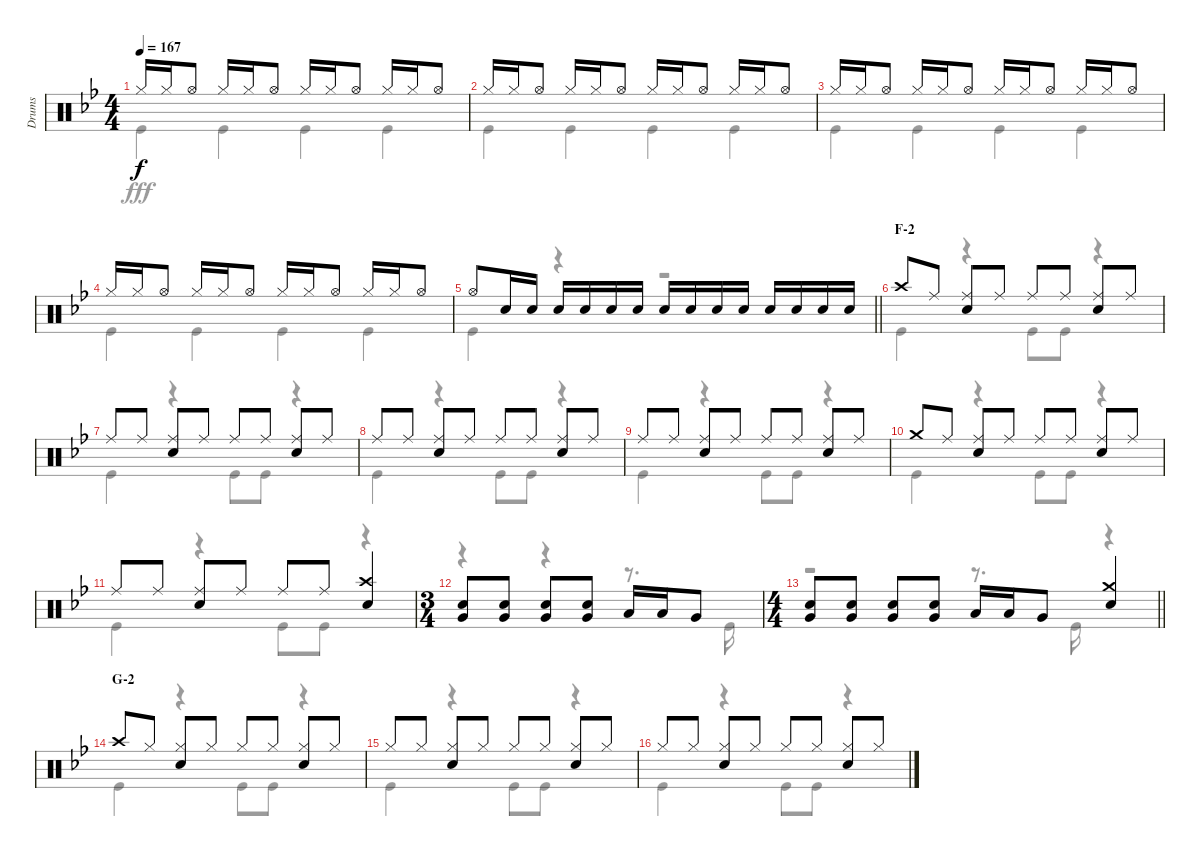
\track ("Drums" "Drums") {instrument percussion}
\staff {score}
\articulation defaults
\voice
\ts (4 4)
\tempo 167
\clef neutral
\ks bb "Hi-Hat (closed)".16{dy f} "Hi-Hat (closed)".16 "Hi-Hat (open)".8 "Hi-Hat (closed)".16 "Hi-Hat (closed)".16 "Hi-Hat (open)".8 "Hi-Hat (closed)".16 "Hi-Hat (closed)".16 "Hi-Hat (open)".8 "Hi-Hat (closed)".16 "Hi-Hat (closed)".16 "Hi-Hat (open)".8
|
"Hi-Hat (closed)".16 "Hi-Hat (closed)".16 "Hi-Hat (open)".8 "Hi-Hat (closed)".16 "Hi-Hat (closed)".16 "Hi-Hat (open)".8 "Hi-Hat (closed)".16 "Hi-Hat (closed)".16 "Hi-Hat (open)".8 "Hi-Hat (closed)".16 "Hi-Hat (closed)".16 "Hi-Hat (open)".8 |
"Hi-Hat (closed)".16 "Hi-Hat (closed)".16 "Hi-Hat (open)".8 "Hi-Hat (closed)".16 "Hi-Hat (closed)".16 "Hi-Hat (open)".8 "Hi-Hat (closed)".16 "Hi-Hat (closed)".16 "Hi-Hat (open)".8 "Hi-Hat (closed)".16 "Hi-Hat (closed)".16 "Hi-Hat (open)".8 |
"Hi-Hat (closed)".16 "Hi-Hat (closed)".16 "Hi-Hat (open)".8 "Hi-Hat (closed)".16 "Hi-Hat (closed)".16 "Hi-Hat (open)".8 "Hi-Hat (closed)".16 "Hi-Hat (closed)".16 "Hi-Hat (open)".8 "Hi-Hat (closed)".16 "Hi-Hat (closed)".16 "Hi-Hat (open)".8 |
\barLineRight lightlight "Hi-Hat (open)".8 "Snare (hit) 2".16 "Snare (hit) 2".16 "Snare (hit) 2".16 "Snare (hit) 2".16 "Snare (hit) 2".16 "Snare (hit) 2".16 "Snare (hit) 2".16 "Snare (hit) 2".16 "Snare (hit) 2".16 "Snare (hit) 2".16 "Snare (hit) 2".16 "Snare (hit) 2".16 "Snare (hit) 2".16 "Snare (hit) 2".16
|
\section ("" "F-2")
"Crash high (hit)".8 "Ride (middle)".8 ("Ride (middle)" "Snare (hit) 2").8 "Ride (middle)".8 "Ride (middle)".8 "Ride (middle)".8 ("Ride (middle)" "Snare (hit) 2").8 "Ride (middle)".8 |
"Ride (middle)".8 "Ride (middle)".8 ("Ride (middle)" "Snare (hit) 2").8 "Ride (middle)".8 "Ride (middle)".8 "Ride (middle)".8 ("Ride (middle)" "Snare (hit) 2").8 "Ride (middle)".8 |
"Ride (middle)".8 "Ride (middle)".8 ("Ride (middle)" "Snare (hit) 2").8 "Ride (middle)".8 "Ride (middle)".8 "Ride (middle)".8 ("Ride (middle)" "Snare (hit) 2").8 "Ride (middle)".8 |
"Ride (middle)".8 "Ride (middle)".8 ("Ride (middle)" "Snare (hit) 2").8 "Ride (middle)".8 "Ride (middle)".8 "Ride (middle)".8 ("Ride (middle)" "Snare (hit) 2").8 "Ride (middle)".8 |
"Crash medium (hit)".8 "Ride (middle)".8 ("Ride (middle)" "Snare (hit) 2").8 "Ride (middle)".8 "Ride (middle)".8 "Ride (middle)".8 ("Ride (middle)" "Snare (hit) 2").8 "Ride (middle)".8 |
"Ride (middle)".8 "Ride (middle)".8 ("Ride (middle)" "Snare (hit) 2").8 "Ride (middle)".8 "Ride (middle)".8 "Ride (middle)".8 ("Crash high (hit)" "Snare (hit) 2").4 |
\ts (3 4)
("Snare (hit) 2" "Very Low Tom (hit)").8 ("Snare (hit) 2" "Very Low Tom (hit)").8 ("Snare (hit) 2" "Very Low Tom (hit)").8 ("Snare (hit) 2" "Very Low Tom (hit)").8 "Low Tom (hit)".16 "Low Tom (hit)".16 "Very Low Tom (hit)".8 |
\ts (4 4)
\barLineRight lightlight
("Snare (hit) 2" "Very Low Tom (hit)").8 ("Snare (hit) 2" "Very Low Tom (hit)").8 ("Snare (hit) 2" "Very Low Tom (hit)").8 ("Snare (hit) 2" "Very Low Tom (hit)").8 "Low Tom (hit)".16 "Low Tom (hit)".16 "Very Low Tom (hit)".8 ("Crash medium (hit)" "Snare (hit) 2").4 |
\section ("" "G-2")
"Crash high (hit)".8 "Hi-Hat (closed)".8 ("Hi-Hat (closed)" "Snare (hit) 2").8 "Hi-Hat (closed)".8 "Hi-Hat (closed)".8 "Hi-Hat (closed)".8 ("Hi-Hat (closed)" "Snare (hit) 2").8 "Hi-Hat (closed)".8 |
"Hi-Hat (closed)".8 "Hi-Hat (closed)".8 ("Hi-Hat (closed)" "Snare (hit) 2").8 "Hi-Hat (closed)".8 "Hi-Hat (closed)".8 "Hi-Hat (closed)".8 ("Hi-Hat (closed)" "Snare (hit) 2").8 "Hi-Hat (closed)".8 |
"Hi-Hat (closed)".8 "Hi-Hat (closed)".8 ("Hi-Hat (closed)" "Snare (hit) 2").8 "Hi-Hat (closed)".8 "Hi-Hat (closed)".8 "Hi-Hat (closed)".8 ("Hi-Hat (closed)" "Snare (hit) 2").8 "Hi-Hat (closed)".8
\voice
\clef neutral
\ottava regular
\simile none
\ks bb "Kick (hit)".4{dy fff} "Kick (hit)".4 "Kick (hit)".4 "Kick (hit)".4
|
"Kick (hit)".4 "Kick (hit)".4 "Kick (hit)".4 "Kick (hit)".4 |
"Kick (hit)".4 "Kick (hit)".4 "Kick (hit)".4 "Kick (hit)".4 |
"Kick (hit)".4 "Kick (hit)".4 "Kick (hit)".4 "Kick (hit)".4 |
\barLineRight lightlight "Kick (hit)".4
r.4 r.2 |
"Kick (hit)".4 r.4 "Kick (hit)".8 "Kick (hit)".8 r.4 |
"Kick (hit)".4 r.4 "Kick (hit)".8 "Kick (hit)".8 r.4 |
"Kick (hit)".4 r.4 "Kick (hit)".8 "Kick (hit)".8 r.4 |
"Kick (hit)".4 r.4 "Kick (hit)".8 "Kick (hit)".8 r.4 |
"Kick (hit)".4 r.4 "Kick (hit)".8 "Kick (hit)".8 r.4 |
"Kick (hit)".4 r.4 "Kick (hit)".8 "Kick (hit)".8 r.4 |
r.4 r.4 r.8{d} "Kick (hit)".16 |
\barLineRight lightlight
r.2 r.8{d} "Kick (hit)".16 r.4 |
"Kick (hit)".4 r.4 "Kick (hit)".8 "Kick (hit)".8 r.4 |
"Kick (hit)".4 r.4 "Kick (hit)".8 "Kick (hit)".8 r.4 |
"Kick (hit)".4 r.4 "Kick (hit)".8 "Kick (hit)".8 r.4
